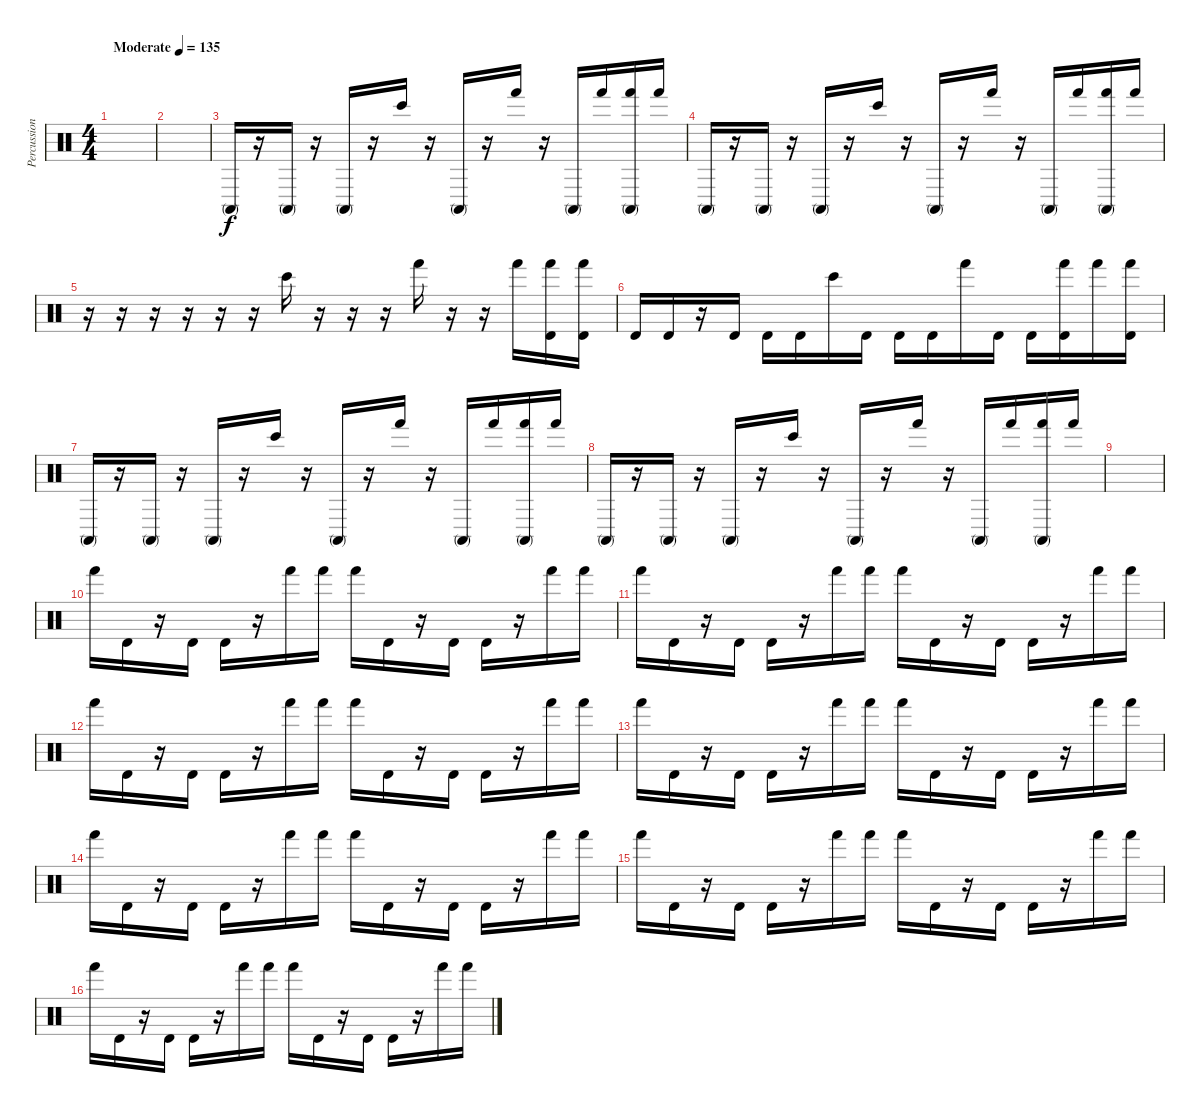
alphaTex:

\track ("Percussion" "Percussion") {instrument percussion}
\staff {score}
\articulation defaults
\ts (4 4)
\tempo (135 "Moderate")
\clef neutral
\ks c
|
|
"Conga high (mute)".16 r.16 "Conga high (mute)".16 r.16 "Conga high (mute)".16 r.16 "Bongo High (hit)".16 r.16 "Conga high (mute)".16 r.16 "Hand (hit)".16 r.16 "Conga high (mute)".16 "Hand (hit)".16 ("Hand (hit)" "Conga high (mute)").16 "Hand (hit)".16 |
"Conga high (mute)".16 r.16 "Conga high (mute)".16 r.16 "Conga high (mute)".16 r.16 "Bongo High (hit)".16 r.16 "Conga high (mute)".16 r.16 "Hand (hit)".16 r.16 "Conga high (mute)".16 "Hand (hit)".16 ("Hand (hit)" "Conga high (mute)").16 "Hand (hit)".16 |
r.16 r.16 r.16 r.16 r.16 r.16 "Bongo High (hit)".16 r.16 r.16 r.16 "Hand (hit)".16 r.16 r.16 "Hand (hit)".16 ("Hand (hit)" "Timbale high (hit)").16 ("Hand (hit)" "Timbale high (hit)").16 |
"Timbale high (hit)".16 "Timbale high (hit)".16 r.16 "Timbale high (hit)".16 "Timbale high (hit)".16 "Timbale high (hit)".16 "Bongo High (hit)".16 "Timbale high (hit)".16 "Timbale high (hit)".16 "Timbale high (hit)".16 "Hand (hit)".16 "Timbale high (hit)".16 "Timbale high (hit)".16 ("Hand (hit)" "Timbale high (hit)").16 "Hand (hit)".16 ("Hand (hit)" "Timbale high (hit)").16 |
"Conga high (mute)".16 r.16 "Conga high (mute)".16 r.16 "Conga high (mute)".16 r.16 "Bongo High (hit)".16 r.16 "Conga high (mute)".16 r.16 "Hand (hit)".16 r.16 "Conga high (mute)".16 "Hand (hit)".16 ("Hand (hit)" "Conga high (mute)").16 "Hand (hit)".16 |
"Conga high (mute)".16 r.16 "Conga high (mute)".16 r.16 "Conga high (mute)".16 r.16 "Bongo High (hit)".16 r.16 "Conga high (mute)".16 r.16 "Hand (hit)".16 r.16 "Conga high (mute)".16 "Hand (hit)".16 ("Hand (hit)" "Conga high (mute)").16 "Hand (hit)".16 |
|
"Hand (hit)".16{volume 12} "Timbale high (hit)".16 r.16 "Timbale high (hit)".16 "Timbale high (hit)".16 r.16 "Hand (hit)".16 "Hand (hit)".16 "Hand (hit)".16 "Timbale high (hit)".16 r.16 "Timbale high (hit)".16 "Timbale high (hit)".16 r.16 "Hand (hit)".16 "Hand (hit)".16 |
"Hand (hit)".16 "Timbale high (hit)".16 r.16 "Timbale high (hit)".16 "Timbale high (hit)".16 r.16 "Hand (hit)".16 "Hand (hit)".16 "Hand (hit)".16 "Timbale high (hit)".16 r.16 "Timbale high (hit)".16 "Timbale high (hit)".16 r.16 "Hand (hit)".16 "Hand (hit)".16 |
"Hand (hit)".16 "Timbale high (hit)".16 r.16 "Timbale high (hit)".16 "Timbale high (hit)".16 r.16 "Hand (hit)".16 "Hand (hit)".16 "Hand (hit)".16 "Timbale high (hit)".16 r.16 "Timbale high (hit)".16 "Timbale high (hit)".16 r.16 "Hand (hit)".16 "Hand (hit)".16 |
"Hand (hit)".16 "Timbale high (hit)".16 r.16 "Timbale high (hit)".16 "Timbale high (hit)".16 r.16 "Hand (hit)".16 "Hand (hit)".16 "Hand (hit)".16 "Timbale high (hit)".16 r.16 "Timbale high (hit)".16 "Timbale high (hit)".16 r.16 "Hand (hit)".16 "Hand (hit)".16 |
"Hand (hit)".16 "Timbale high (hit)".16 r.16 "Timbale high (hit)".16 "Timbale high (hit)".16 r.16 "Hand (hit)".16 "Hand (hit)".16 "Hand (hit)".16 "Timbale high (hit)".16 r.16 "Timbale high (hit)".16 "Timbale high (hit)".16 r.16 "Hand (hit)".16 "Hand (hit)".16 |
"Hand (hit)".16 "Timbale high (hit)".16 r.16 "Timbale high (hit)".16 "Timbale high (hit)".16 r.16 "Hand (hit)".16 "Hand (hit)".16 "Hand (hit)".16 "Timbale high (hit)".16 r.16 "Timbale high (hit)".16 "Timbale high (hit)".16 r.16 "Hand (hit)".16 "Hand (hit)".16 |
"Hand (hit)".16 "Timbale high (hit)".16 r.16 "Timbale high (hit)".16 "Timbale high (hit)".16 r.16 "Hand (hit)".16 "Hand (hit)".16 "Hand (hit)".16 "Timbale high (hit)".16 r.16 "Timbale high (hit)".16 "Timbale high (hit)".16 r.16 "Hand (hit)".16 "Hand (hit)".16
